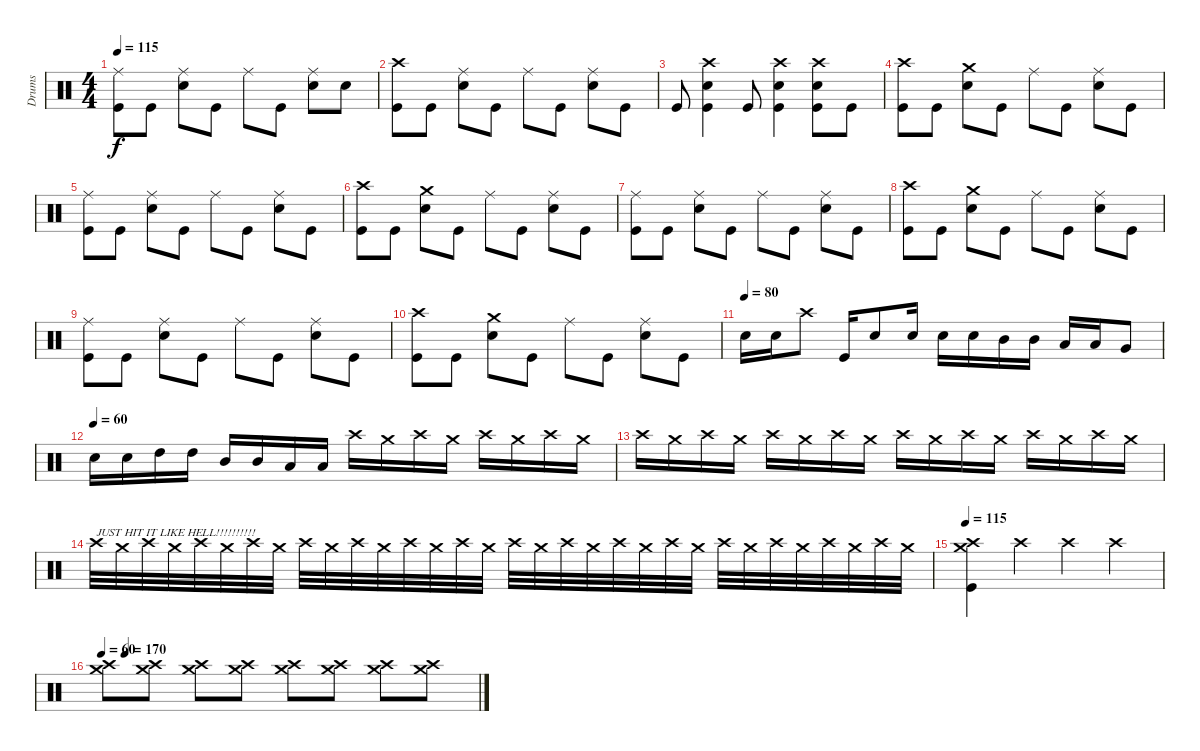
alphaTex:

\track ("Drums" "Drums") {instrument percussion}
\staff {score}
\articulation defaults
\ts (4 4)
\tempo 115
\clef neutral
\ks c
("Ride (middle)" "Kick (hit)").8{dy f} "Kick (hit)".8 ("Ride (middle)" "Snare (hit) 2").8 "Kick (hit)".8 "Ride (middle)".8 "Kick (hit)".8 ("Ride (middle)" "Snare (hit) 2").8 "Snare (hit) 2".8 |
("Crash high (hit)" "Kick (hit)").8 "Kick (hit)".8 ("Ride (middle)" "Snare (hit) 2").8 "Kick (hit)".8 "Ride (middle)".8 "Kick (hit)".8 ("Ride (middle)" "Snare (hit) 2").8 "Kick (hit)".8 |
"Kick (hit)".8 ("Crash high (hit)" "Snare (hit) 2" "Kick (hit)").4 "Kick (hit)".8 ("Crash high (hit)" "Snare (hit) 2" "Kick (hit)").4 ("Crash high (hit)" "Snare (hit) 2" "Kick (hit)").8 "Kick (hit)".8 |
("Crash high (hit)" "Kick (hit)").8 "Kick (hit)".8 ("Crash medium (hit)" "Snare (hit) 2").8 "Kick (hit)".8 "Ride (middle)".8 "Kick (hit)".8 ("Ride (middle)" "Snare (hit) 2").8 "Kick (hit)".8 |
("Ride (middle)" "Kick (hit)").8 "Kick (hit)".8 ("Ride (middle)" "Snare (hit) 2").8 "Kick (hit)".8 "Ride (middle)".8 "Kick (hit)".8 ("Ride (middle)" "Snare (hit) 2").8 "Kick (hit)".8 |
("Crash high (hit)" "Kick (hit)").8 "Kick (hit)".8 ("Crash medium (hit)" "Snare (hit) 2").8 "Kick (hit)".8 "Ride (middle)".8 "Kick (hit)".8 ("Ride (middle)" "Snare (hit) 2").8 "Kick (hit)".8 |
("Ride (middle)" "Kick (hit)").8 "Kick (hit)".8 ("Ride (middle)" "Snare (hit) 2").8 "Kick (hit)".8 "Ride (middle)".8 "Kick (hit)".8 ("Ride (middle)" "Snare (hit) 2").8 "Kick (hit)".8 |
("Crash high (hit)" "Kick (hit)").8 "Kick (hit)".8 ("Crash medium (hit)" "Snare (hit) 2").8 "Kick (hit)".8 "Ride (middle)".8 "Kick (hit)".8 ("Ride (middle)" "Snare (hit) 2").8 "Kick (hit)".8 |
("Ride (middle)" "Kick (hit)").8 "Kick (hit)".8 ("Ride (middle)" "Snare (hit) 2").8 "Kick (hit)".8 "Ride (middle)".8 "Kick (hit)".8 ("Ride (middle)" "Snare (hit) 2").8 "Kick (hit)".8 |
("Crash high (hit)" "Kick (hit)").8 "Kick (hit)".8 ("Crash medium (hit)" "Snare (hit) 2").8 "Kick (hit)".8 "Ride (middle)".8 "Kick (hit)".8 ("Ride (middle)" "Snare (hit) 2").8 "Kick (hit)".8 |
\tempo (80)
"Snare (hit) 2".16 "Snare (hit) 2".16 "Crash high (hit)".8 "Kick (hit)".16 "Snare (hit) 2".8 "Snare (hit) 2".16 "Snare (hit) 2".16 "Snare (hit) 2".16 "Mid Tom (hit)".16 "Mid Tom (hit)".16 "Low Tom (hit)".16 "Low Tom (hit)".16 "Very Low Tom (hit)".8 |
\tempo (60)
"Snare (hit) 2".16 "Snare (hit) 2".16 "High Tom (hit)".16 "High Tom (hit)".16 "Mid Tom (hit)".16 "Mid Tom (hit)".16 "Low Tom (hit)".16 "Low Tom (hit)".16 "Crash high (hit)".16 "Crash medium (hit)".16 "Crash high (hit)".16 "Crash medium (hit)".16 "Crash high (hit)".16 "Crash medium (hit)".16 "Crash high (hit)".16 "Crash medium (hit)".16 |
"Crash high (hit)".16 "Crash medium (hit)".16 "Crash high (hit)".16 "Crash medium (hit)".16 "Crash high (hit)".16 "Crash medium (hit)".16 "Crash high (hit)".16 "Crash medium (hit)".16 "Crash high (hit)".16 "Crash medium (hit)".16 "Crash high (hit)".16 "Crash medium (hit)".16 "Crash high (hit)".16 "Crash medium (hit)".16 "Crash high (hit)".16 "Crash medium (hit)".16 |
"Crash high (hit)".32{txt "JUST HIT IT LIKE HELL!!!!!!!!!!"} "Crash medium (hit)".32 "Crash high (hit)".32 "Crash medium (hit)".32 "Crash high (hit)".32 "Crash medium (hit)".32 "Crash high (hit)".32 "Crash medium (hit)".32 "Crash high (hit)".32 "Crash medium (hit)".32 "Crash high (hit)".32 "Crash medium (hit)".32 "Crash high (hit)".32 "Crash medium (hit)".32 "Crash high (hit)".32 "Crash medium (hit)".32 "Crash high (hit)".32 "Crash medium (hit)".32 "Crash high (hit)".32 "Crash medium (hit)".32 "Crash high (hit)".32 "Crash medium (hit)".32 "Crash high (hit)".32 "Crash medium (hit)".32 "Crash high (hit)".32 "Crash medium (hit)".32 "Crash high (hit)".32 "Crash medium (hit)".32 "Crash high (hit)".32 "Crash medium (hit)".32 "Crash high (hit)".32 "Crash medium (hit)".32 |
\tempo 115
("Crash high (hit)" "Crash medium (hit)" "Kick (hit)").4 "Crash high (hit)".4 "Crash high (hit)".4 "Crash high (hit)".4 |
\tempo 60
\tempo (170 0.0625)
("Crash medium (hit)" "Crash high (hit)").8 ("Crash medium (hit)" "Crash high (hit)").8 ("Crash medium (hit)" "Crash high (hit)").8 ("Crash medium (hit)" "Crash high (hit)").8 ("Crash medium (hit)" "Crash high (hit)").8 ("Crash medium (hit)" "Crash high (hit)").8 ("Crash medium (hit)" "Crash high (hit)").8 ("Crash medium (hit)" "Crash high (hit)").8
